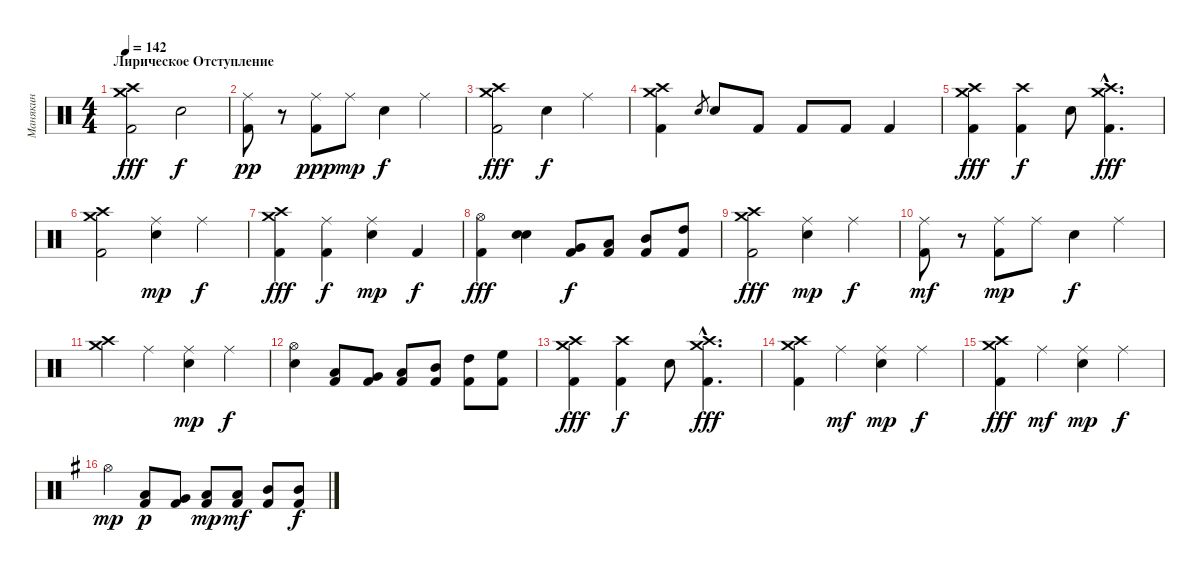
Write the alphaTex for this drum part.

\track ("Манякин" "Манякин") {instrument percussion}
\staff {score}
\articulation defaults
\ts (4 4)
\section ("" "Лирическое Отступление")
\tempo 142
\clef neutral
\ks c
("Crash high (hit)" "Crash medium (hit)" "Kick (hit) 2").2{dy fff} "Electric Snare (hit)".2{dy f} |
("Ride (middle)" "Kick (hit) 2").8{dy pp} r.8 ("Ride (middle)" "Kick (hit) 2").8{dy ppp} "Ride (middle)".8{dy mp} "Electric Snare (hit)".4{dy f} "Ride (middle)".4 |
("Crash high (hit)" "Crash medium (hit)" "Kick (hit) 2").2{dy fff} "Electric Snare (hit)".4{dy f} "Ride (middle)".4 |
("Kick (hit) 2" "Crash medium (hit)" "Crash high (hit)").4 "Electric Snare (hit)".8{gr} "Electric Snare (hit)".8 "Kick (hit) 2".8 "Kick (hit) 2".8 "Kick (hit) 2".8 "Kick (hit) 2".4 |
("Crash high (hit)" "Crash medium (hit)" "Kick (hit) 2").4{dy fff} ("Crash high (hit)" "Kick (hit) 2").4{dy f} "Electric Snare (hit)".8 ("Crash high (hit)"{hac} "Crash medium (hit)"{hac} "Kick (hit) 2"{hac}).4{d dy fff} |
("Crash high (hit)" "Crash medium (hit)" "Kick (hit) 2").2 ("Ride (middle)" "Electric Snare (hit)").4{dy mp} "Ride (middle)".4{dy f} |
("Crash high (hit)" "Crash medium (hit)" "Kick (hit) 2").4{dy fff} ("Ride (middle)" "Kick (hit) 2").4{dy f} ("Electric Snare (hit)" "Ride (middle)").4{dy mp} "Kick (hit) 2".4{dy f} |
("Hi-Hat (open)" "Kick (hit) 2").4{dy fff} ("Electric Snare (hit)" "Snare (hit) 2").4 ("Very Low Tom (hit)" "Kick (hit) 2").8{dy f} ("Low Tom (hit)" "Kick (hit) 2").8 ("Mid Tom (hit)" "Kick (hit) 2").8 ("High Tom (hit)" "Kick (hit) 2").8 |
("Crash high (hit)" "Crash medium (hit)" "Kick (hit) 2").2{dy fff} ("Ride (middle)" "Electric Snare (hit)").4{dy mp} "Ride (middle)".4{dy f} |
("Ride (middle)" "Kick (hit) 2").8{dy mf} r.8 ("Ride (middle)" "Kick (hit) 2").8{dy mp} "Ride (middle)".8 "Electric Snare (hit)".4{dy f} "Ride (middle)".4 |
("Crash high (hit)" "Crash medium (hit)").4 "Ride (middle)".4 ("Ride (middle)" "Electric Snare (hit)").4{dy mp} "Ride (middle)".4{dy f} |
("Hi-Hat (open)" "Electric Snare (hit)").4 ("Low Floor Tom (hit)" "Kick (hit) 2").8 ("Very Low Tom (hit)" "Kick (hit) 2").8 ("Low Tom (hit)" "Kick (hit) 2").8 ("Mid Tom (hit)" "Kick (hit) 2").8 ("High Tom (hit)" "Kick (hit) 2").8 ("High Floor Tom (hit)" "Kick (hit) 2").8 |
("Crash high (hit)" "Crash medium (hit)" "Kick (hit) 2").4{dy fff} ("Crash high (hit)" "Kick (hit) 2").4{dy f} "Electric Snare (hit)".8 ("Crash high (hit)"{hac} "Crash medium (hit)"{hac} "Kick (hit) 2"{hac}).4{d dy fff} |
("Crash high (hit)" "Crash medium (hit)" "Kick (hit) 2").4 "Ride (middle)".4{dy mf} ("Ride (middle)" "Electric Snare (hit)").4{dy mp} "Ride (middle)".4{dy f} |
("Crash high (hit)" "Crash medium (hit)" "Kick (hit) 2").4{dy fff} "Ride (middle)".4{dy mf} ("Ride (middle)" "Electric Snare (hit)").4{dy mp} "Ride (middle)".4{dy f} |
\ks eminor "Hi-Hat (open)".4{dy mp}
("Low Floor Tom (hit)" "Kick (hit) 2").8{dy p} ("Very Low Tom (hit)" "Kick (hit) 2").8 ("Low Tom (hit)" "Kick (hit) 2").8{dy mp} ("Low Tom (hit)" "Kick (hit) 2").8{dy mf} ("Mid Tom (hit)" "Kick (hit) 2").8 ("Mid Tom (hit)" "Kick (hit) 2").8{dy f}
